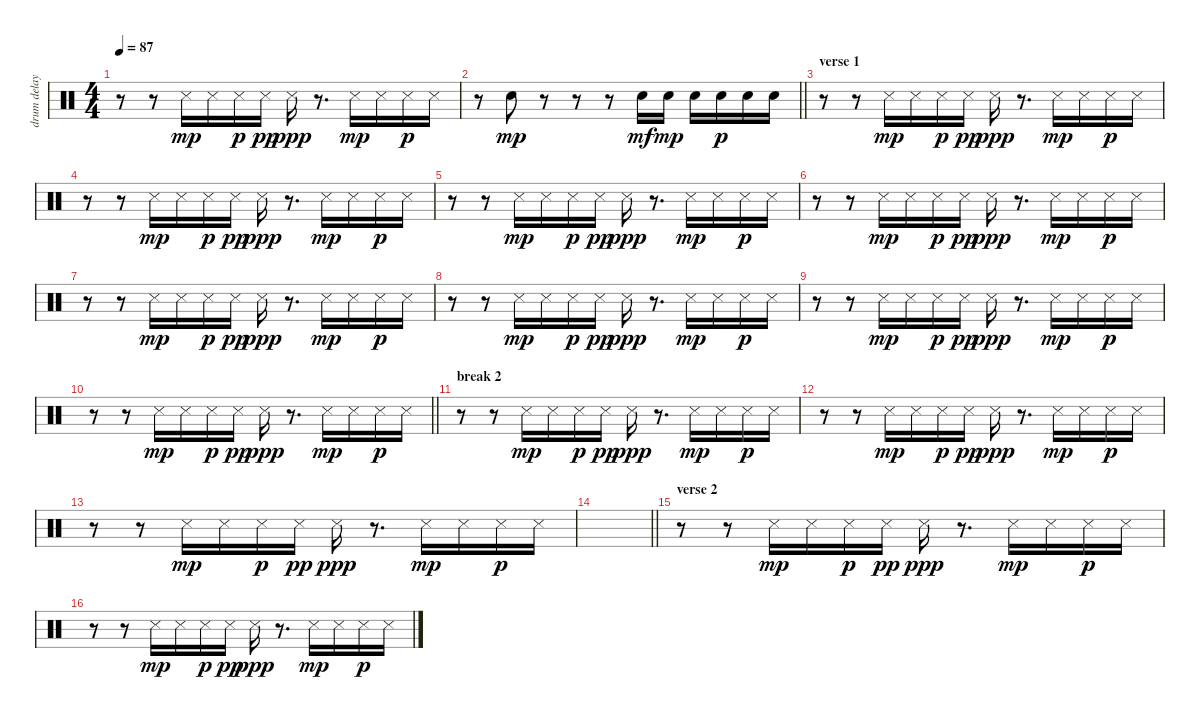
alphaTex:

\track ("drum delay" "drum delay") {instrument percussion}
\staff {score}
\articulation defaults
\ts (4 4)
\tempo 87
\clef neutral
\ks c
r.8{dy p} r.8 "Snare (side stick) 3".16{dy mp} "Snare (side stick) 3".16 "Snare (side stick) 3".16{dy p} "Snare (side stick) 3".16{dy pp} "Snare (side stick) 3".16{dy ppp} r.8{d} "Snare (side stick) 3".16{dy mp} "Snare (side stick) 3".16 "Snare (side stick) 3".16{dy p} "Snare (side stick) 3".16 |
\barLineRight lightlight
r.8 "Electric Snare (hit)".8{dy mp volume 16} r.8 r.8 r.8 "Electric Snare (hit)".16{dy mf} "Electric Snare (hit)".16{dy mp} "Electric Snare (hit)".16 "Electric Snare (hit)".16{dy p} "Electric Snare (hit)".16 "Electric Snare (hit)".16 |
\section ("" "verse 1")
r.8 r.8 "Snare (side stick) 3".16{dy mp} "Snare (side stick) 3".16 "Snare (side stick) 3".16{dy p} "Snare (side stick) 3".16{dy pp} "Snare (side stick) 3".16{dy ppp} r.8{d} "Snare (side stick) 3".16{dy mp} "Snare (side stick) 3".16 "Snare (side stick) 3".16{dy p} "Snare (side stick) 3".16 |
r.8 r.8 "Snare (side stick) 3".16{dy mp} "Snare (side stick) 3".16 "Snare (side stick) 3".16{dy p} "Snare (side stick) 3".16{dy pp} "Snare (side stick) 3".16{dy ppp} r.8{d} "Snare (side stick) 3".16{dy mp} "Snare (side stick) 3".16 "Snare (side stick) 3".16{dy p} "Snare (side stick) 3".16 |
r.8 r.8 "Snare (side stick) 3".16{dy mp} "Snare (side stick) 3".16 "Snare (side stick) 3".16{dy p} "Snare (side stick) 3".16{dy pp} "Snare (side stick) 3".16{dy ppp} r.8{d} "Snare (side stick) 3".16{dy mp} "Snare (side stick) 3".16 "Snare (side stick) 3".16{dy p} "Snare (side stick) 3".16 |
r.8 r.8 "Snare (side stick) 3".16{dy mp} "Snare (side stick) 3".16 "Snare (side stick) 3".16{dy p} "Snare (side stick) 3".16{dy pp} "Snare (side stick) 3".16{dy ppp} r.8{d} "Snare (side stick) 3".16{dy mp} "Snare (side stick) 3".16 "Snare (side stick) 3".16{dy p} "Snare (side stick) 3".16 |
r.8 r.8 "Snare (side stick) 3".16{dy mp} "Snare (side stick) 3".16 "Snare (side stick) 3".16{dy p} "Snare (side stick) 3".16{dy pp} "Snare (side stick) 3".16{dy ppp} r.8{d} "Snare (side stick) 3".16{dy mp} "Snare (side stick) 3".16 "Snare (side stick) 3".16{dy p} "Snare (side stick) 3".16 |
r.8 r.8 "Snare (side stick) 3".16{dy mp} "Snare (side stick) 3".16 "Snare (side stick) 3".16{dy p} "Snare (side stick) 3".16{dy pp} "Snare (side stick) 3".16{dy ppp} r.8{d} "Snare (side stick) 3".16{dy mp} "Snare (side stick) 3".16 "Snare (side stick) 3".16{dy p} "Snare (side stick) 3".16 |
r.8 r.8 "Snare (side stick) 3".16{dy mp} "Snare (side stick) 3".16 "Snare (side stick) 3".16{dy p} "Snare (side stick) 3".16{dy pp} "Snare (side stick) 3".16{dy ppp} r.8{d} "Snare (side stick) 3".16{dy mp} "Snare (side stick) 3".16 "Snare (side stick) 3".16{dy p} "Snare (side stick) 3".16 |
\barLineRight lightlight
r.8 r.8 "Snare (side stick) 3".16{dy mp} "Snare (side stick) 3".16 "Snare (side stick) 3".16{dy p} "Snare (side stick) 3".16{dy pp} "Snare (side stick) 3".16{dy ppp} r.8{d} "Snare (side stick) 3".16{dy mp} "Snare (side stick) 3".16 "Snare (side stick) 3".16{dy p} "Snare (side stick) 3".16 |
\section ("" "break 2")
r.8{volume 6} r.8 "Snare (side stick) 3".16{dy mp} "Snare (side stick) 3".16 "Snare (side stick) 3".16{dy p} "Snare (side stick) 3".16{dy pp} "Snare (side stick) 3".16{dy ppp} r.8{d} "Snare (side stick) 3".16{dy mp} "Snare (side stick) 3".16 "Snare (side stick) 3".16{dy p} "Snare (side stick) 3".16 |
r.8 r.8 "Snare (side stick) 3".16{dy mp} "Snare (side stick) 3".16 "Snare (side stick) 3".16{dy p} "Snare (side stick) 3".16{dy pp} "Snare (side stick) 3".16{dy ppp} r.8{d} "Snare (side stick) 3".16{dy mp} "Snare (side stick) 3".16 "Snare (side stick) 3".16{dy p} "Snare (side stick) 3".16 |
r.8 r.8 "Snare (side stick) 3".16{dy mp} "Snare (side stick) 3".16 "Snare (side stick) 3".16{dy p} "Snare (side stick) 3".16{dy pp} "Snare (side stick) 3".16{dy ppp} r.8{d} "Snare (side stick) 3".16{dy mp} "Snare (side stick) 3".16 "Snare (side stick) 3".16{dy p} "Snare (side stick) 3".16 |
\barLineRight lightlight
|
\section ("" "verse 2")
r.8{volume 16} r.8 "Snare (side stick) 3".16{dy mp} "Snare (side stick) 3".16 "Snare (side stick) 3".16{dy p} "Snare (side stick) 3".16{dy pp} "Snare (side stick) 3".16{dy ppp} r.8{d} "Snare (side stick) 3".16{dy mp} "Snare (side stick) 3".16 "Snare (side stick) 3".16{dy p} "Snare (side stick) 3".16 |
r.8 r.8 "Snare (side stick) 3".16{dy mp} "Snare (side stick) 3".16 "Snare (side stick) 3".16{dy p} "Snare (side stick) 3".16{dy pp} "Snare (side stick) 3".16{dy ppp} r.8{d} "Snare (side stick) 3".16{dy mp} "Snare (side stick) 3".16 "Snare (side stick) 3".16{dy p} "Snare (side stick) 3".16
